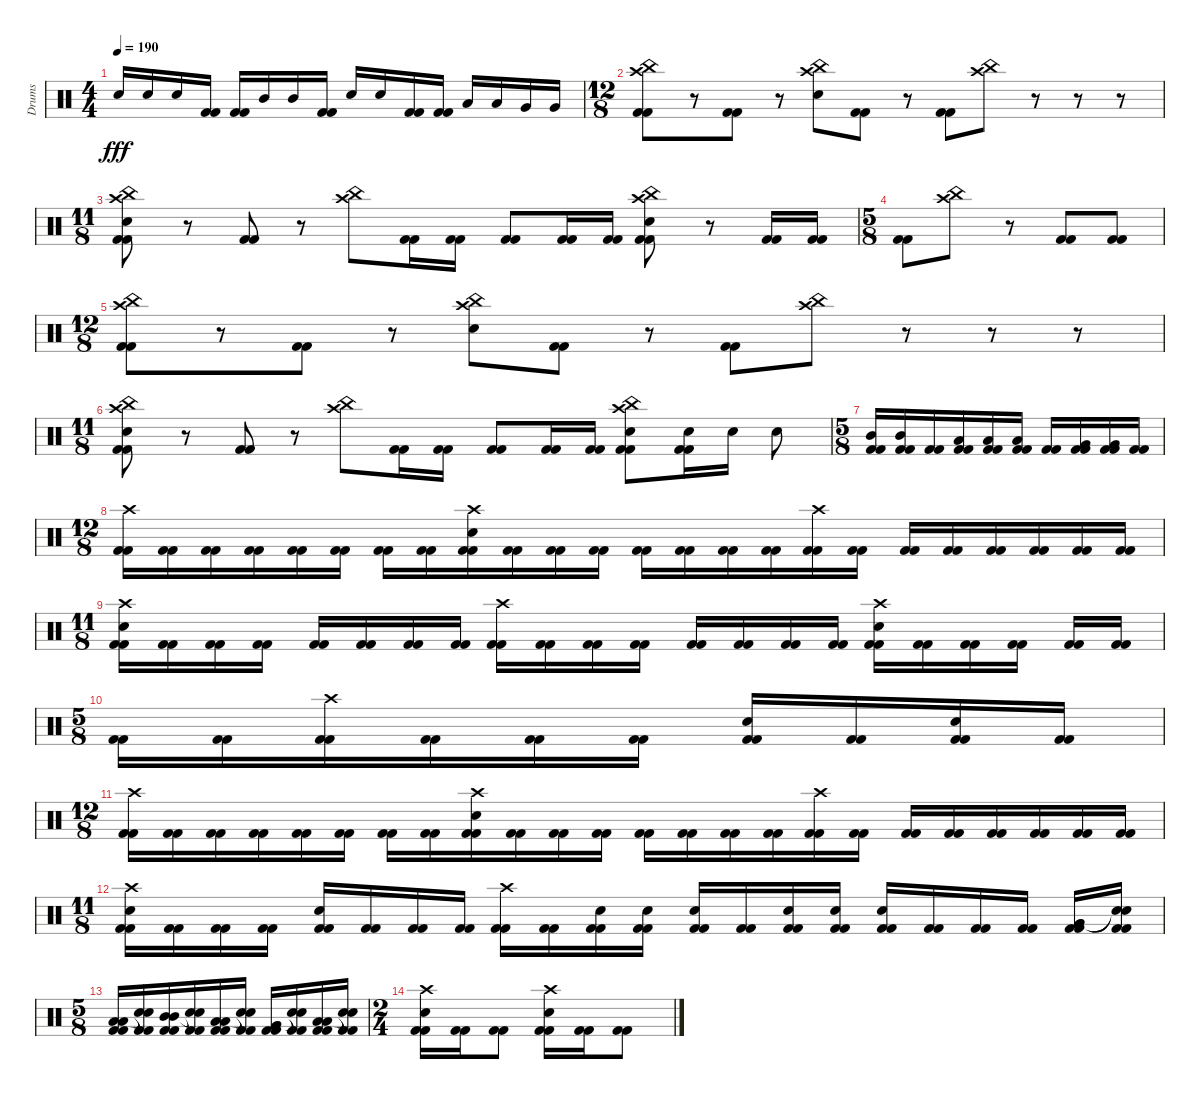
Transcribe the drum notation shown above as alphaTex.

\track ("Drums" "Drums") {instrument percussion}
\staff {score}
\articulation defaults
\ts (4 4)
\tempo 190
\clef neutral
\ks c "Electric Snare (hit)".16{dy fff} "Electric Snare (hit)".16 "Electric Snare (hit)".16
("Kick (hit) 2" "Kick (hit) 2").16 ("Kick (hit) 2" "Kick (hit) 2").16 "Mid Tom (hit)".16 "Mid Tom (hit)".16 ("Kick (hit) 2" "Kick (hit) 2").16 "Electric Snare (hit)".16 "Electric Snare (hit)".16 ("Kick (hit) 2" "Kick (hit) 2").16 ("Kick (hit) 2" "Kick (hit) 2").16 "Low Tom (hit)".16 "Low Tom (hit)".16 "Very Low Tom (hit)".16 "Very Low Tom (hit)".16 |
\ts (12 8)
("Crash high (hit)" "China (hit)" "Kick (hit) 2" "Kick (hit) 2").8 r.8 ("Kick (hit) 2" "Kick (hit) 2").8 r.8 ("Crash high (hit)" "China (hit)" "Electric Snare (hit)").8 ("Kick (hit) 2" "Kick (hit) 2").8 r.8 ("Kick (hit) 2" "Kick (hit) 2").8 ("Crash high (hit)" "China (hit)").8 r.8 r.8 r.8 |
\ts (11 8)
("Crash high (hit)" "China (hit)" "Electric Snare (hit)" "Kick (hit) 2" "Kick (hit) 2").8 r.8 ("Kick (hit) 2" "Kick (hit) 2").8 r.8 ("Crash high (hit)" "China (hit)").8 ("Kick (hit) 2" "Kick (hit) 2").16 ("Kick (hit) 2" "Kick (hit) 2").16 ("Kick (hit) 2" "Kick (hit) 2").8 ("Kick (hit) 2" "Kick (hit) 2").16 ("Kick (hit) 2" "Kick (hit) 2").16 ("Crash high (hit)" "China (hit)" "Electric Snare (hit)" "Kick (hit) 2" "Kick (hit) 2").8 r.8 ("Kick (hit) 2" "Kick (hit) 2").16 ("Kick (hit) 2" "Kick (hit) 2").16 |
\ts (5 8)
("Kick (hit) 2" "Kick (hit) 2").8 ("Crash high (hit)" "China (hit)").8 r.8 ("Kick (hit) 2" "Kick (hit) 2").8 ("Kick (hit) 2" "Kick (hit) 2").8 |
\ts (12 8)
("Crash high (hit)" "China (hit)" "Kick (hit) 2" "Kick (hit) 2").8 r.8 ("Kick (hit) 2" "Kick (hit) 2").8 r.8 ("Crash high (hit)" "China (hit)" "Electric Snare (hit)").8 ("Kick (hit) 2" "Kick (hit) 2").8 r.8 ("Kick (hit) 2" "Kick (hit) 2").8 ("Crash high (hit)" "China (hit)").8 r.8 r.8 r.8 |
\ts (11 8)
("Crash high (hit)" "China (hit)" "Electric Snare (hit)" "Kick (hit) 2" "Kick (hit) 2").8 r.8 ("Kick (hit) 2" "Kick (hit) 2").8 r.8 ("Crash high (hit)" "China (hit)").8 ("Kick (hit) 2" "Kick (hit) 2").16 ("Kick (hit) 2" "Kick (hit) 2").16 ("Kick (hit) 2" "Kick (hit) 2").8 ("Kick (hit) 2" "Kick (hit) 2").16 ("Kick (hit) 2" "Kick (hit) 2").16 ("Crash high (hit)" "China (hit)" "Electric Snare (hit)" "Kick (hit) 2" "Kick (hit) 2").8 ("Electric Snare (hit)" "Kick (hit) 2" "Kick (hit) 2").16 "Electric Snare (hit)".16 "Electric Snare (hit)".8 |
\ts (5 8)
("Mid Tom (hit)" "Kick (hit) 2" "Kick (hit) 2").16 ("Mid Tom (hit)" "Kick (hit) 2" "Kick (hit) 2").16 ("Kick (hit) 2" "Kick (hit) 2").16 ("Low Tom (hit)" "Kick (hit) 2" "Kick (hit) 2").16 ("Low Tom (hit)" "Kick (hit) 2" "Kick (hit) 2").16 ("Low Tom (hit)" "Kick (hit) 2" "Kick (hit) 2").16 ("Kick (hit) 2" "Kick (hit) 2").16 ("Very Low Tom (hit)" "Kick (hit) 2" "Kick (hit) 2").16 ("Very Low Tom (hit)" "Kick (hit) 2" "Kick (hit) 2").16 ("Kick (hit) 2" "Kick (hit) 2").16 |
\ts (12 8)
("Crash high (hit)" "Kick (hit) 2" "Kick (hit) 2").16 ("Kick (hit) 2" "Kick (hit) 2").16 ("Kick (hit) 2" "Kick (hit) 2").16 ("Kick (hit) 2" "Kick (hit) 2").16 ("Kick (hit) 2" "Kick (hit) 2").16 ("Kick (hit) 2" "Kick (hit) 2").16 ("Kick (hit) 2" "Kick (hit) 2").16 ("Kick (hit) 2" "Kick (hit) 2").16 ("Crash high (hit)" "Electric Snare (hit)" "Kick (hit) 2" "Kick (hit) 2").16 ("Kick (hit) 2" "Kick (hit) 2").16 ("Kick (hit) 2" "Kick (hit) 2").16 ("Kick (hit) 2" "Kick (hit) 2").16 ("Kick (hit) 2" "Kick (hit) 2").16 ("Kick (hit) 2" "Kick (hit) 2").16 ("Kick (hit) 2" "Kick (hit) 2").16 ("Kick (hit) 2" "Kick (hit) 2").16 ("Crash high (hit)" "Kick (hit) 2" "Kick (hit) 2").16 ("Kick (hit) 2" "Kick (hit) 2").16 ("Kick (hit) 2" "Kick (hit) 2").16 ("Kick (hit) 2" "Kick (hit) 2").16 ("Kick (hit) 2" "Kick (hit) 2").16 ("Kick (hit) 2" "Kick (hit) 2").16 ("Kick (hit) 2" "Kick (hit) 2").16 ("Kick (hit) 2" "Kick (hit) 2").16 |
\ts (11 8)
("Crash high (hit)" "Electric Snare (hit)" "Kick (hit) 2" "Kick (hit) 2").16 ("Kick (hit) 2" "Kick (hit) 2").16 ("Kick (hit) 2" "Kick (hit) 2").16 ("Kick (hit) 2" "Kick (hit) 2").16 ("Kick (hit) 2" "Kick (hit) 2").16 ("Kick (hit) 2" "Kick (hit) 2").16 ("Kick (hit) 2" "Kick (hit) 2").16 ("Kick (hit) 2" "Kick (hit) 2").16 ("Crash high (hit)" "Kick (hit) 2" "Kick (hit) 2").16 ("Kick (hit) 2" "Kick (hit) 2").16 ("Kick (hit) 2" "Kick (hit) 2").16 ("Kick (hit) 2" "Kick (hit) 2").16 ("Kick (hit) 2" "Kick (hit) 2").16 ("Kick (hit) 2" "Kick (hit) 2").16 ("Kick (hit) 2" "Kick (hit) 2").16 ("Kick (hit) 2" "Kick (hit) 2").16 ("Crash high (hit)" "Electric Snare (hit)" "Kick (hit) 2" "Kick (hit) 2").16 ("Kick (hit) 2" "Kick (hit) 2").16 ("Kick (hit) 2" "Kick (hit) 2").16 ("Kick (hit) 2" "Kick (hit) 2").16 ("Kick (hit) 2" "Kick (hit) 2").16 ("Kick (hit) 2" "Kick (hit) 2").16 |
\ts (5 8)
("Kick (hit) 2" "Kick (hit) 2").16 ("Kick (hit) 2" "Kick (hit) 2").16 ("Crash high (hit)" "Kick (hit) 2" "Kick (hit) 2").16 ("Kick (hit) 2" "Kick (hit) 2").16 ("Kick (hit) 2" "Kick (hit) 2").16 ("Kick (hit) 2" "Kick (hit) 2").16 ("Electric Snare (hit)" "Kick (hit) 2" "Kick (hit) 2").16 ("Kick (hit) 2" "Kick (hit) 2").16 ("Electric Snare (hit)" "Kick (hit) 2" "Kick (hit) 2").16 ("Kick (hit) 2" "Kick (hit) 2").16 |
\ts (12 8)
("Crash high (hit)" "Kick (hit) 2" "Kick (hit) 2").16 ("Kick (hit) 2" "Kick (hit) 2").16 ("Kick (hit) 2" "Kick (hit) 2").16 ("Kick (hit) 2" "Kick (hit) 2").16 ("Kick (hit) 2" "Kick (hit) 2").16 ("Kick (hit) 2" "Kick (hit) 2").16 ("Kick (hit) 2" "Kick (hit) 2").16 ("Kick (hit) 2" "Kick (hit) 2").16 ("Crash high (hit)" "Electric Snare (hit)" "Kick (hit) 2" "Kick (hit) 2").16 ("Kick (hit) 2" "Kick (hit) 2").16 ("Kick (hit) 2" "Kick (hit) 2").16 ("Kick (hit) 2" "Kick (hit) 2").16 ("Kick (hit) 2" "Kick (hit) 2").16 ("Kick (hit) 2" "Kick (hit) 2").16 ("Kick (hit) 2" "Kick (hit) 2").16 ("Kick (hit) 2" "Kick (hit) 2").16 ("Crash high (hit)" "Kick (hit) 2" "Kick (hit) 2").16 ("Kick (hit) 2" "Kick (hit) 2").16 ("Kick (hit) 2" "Kick (hit) 2").16 ("Kick (hit) 2" "Kick (hit) 2").16 ("Kick (hit) 2" "Kick (hit) 2").16 ("Kick (hit) 2" "Kick (hit) 2").16 ("Kick (hit) 2" "Kick (hit) 2").16 ("Kick (hit) 2" "Kick (hit) 2").16 |
\ts (11 8)
("Crash high (hit)" "Electric Snare (hit)" "Kick (hit) 2" "Kick (hit) 2").16 ("Kick (hit) 2" "Kick (hit) 2").16 ("Kick (hit) 2" "Kick (hit) 2").16 ("Kick (hit) 2" "Kick (hit) 2").16 ("Electric Snare (hit)" "Kick (hit) 2" "Kick (hit) 2").16 ("Kick (hit) 2" "Kick (hit) 2").16 ("Kick (hit) 2" "Kick (hit) 2").16 ("Kick (hit) 2" "Kick (hit) 2").16 ("Crash high (hit)" "Kick (hit) 2" "Kick (hit) 2").16 ("Kick (hit) 2" "Kick (hit) 2").16 ("Electric Snare (hit)" "Kick (hit) 2" "Kick (hit) 2").16 ("Electric Snare (hit)" "Kick (hit) 2" "Kick (hit) 2").16 ("Electric Snare (hit)" "Kick (hit) 2" "Kick (hit) 2").16 ("Kick (hit) 2" "Kick (hit) 2").16 ("Electric Snare (hit)" "Kick (hit) 2" "Kick (hit) 2").16 ("Electric Snare (hit)" "Kick (hit) 2" "Kick (hit) 2").16 ("Electric Snare (hit)" "Kick (hit) 2" "Kick (hit) 2").16 ("Kick (hit) 2" "Kick (hit) 2").16 ("Kick (hit) 2" "Kick (hit) 2").16 ("Kick (hit) 2" "Kick (hit) 2").16 ("Very Low Tom (hit)" "Very Low Tom (hit)" "Kick (hit) 2" "Kick (hit) 2").16 ("Snare (hit)"{t} "Snare (hit)"{t} "Kick (hit) 2" "Kick (hit) 2").16 |
\ts (5 8)
("Low Tom (hit)" "Low Tom (hit)" "Kick (hit) 2" "Kick (hit) 2").16 ("Snare (hit)"{t} "Snare (hit)"{t} "Kick (hit) 2" "Kick (hit) 2").16 ("Mid Tom (hit)" "Mid Tom (hit)" "Kick (hit) 2" "Kick (hit) 2").16 ("Snare (hit)"{t} "Snare (hit)"{t} "Kick (hit) 2" "Kick (hit) 2").16 ("Low Tom (hit)" "Low Tom (hit)" "Kick (hit) 2" "Kick (hit) 2").16 ("Snare (hit)"{t} "Snare (hit)"{t} "Kick (hit) 2" "Kick (hit) 2").16 ("Very Low Tom (hit)" "Very Low Tom (hit)" "Kick (hit) 2" "Kick (hit) 2").16 ("Snare (hit)"{t} "Snare (hit)"{t} "Kick (hit) 2" "Kick (hit) 2").16 ("Low Floor Tom (hit)" "Low Floor Tom (hit)" "Kick (hit) 2" "Kick (hit) 2").16 ("Snare (hit)"{t} "Snare (hit)"{t} "Kick (hit) 2" "Kick (hit) 2").16 |
\ts (2 4)
("Crash high (hit)" "Electric Snare (hit)" "Kick (hit) 2" "Kick (hit) 2").16 ("Kick (hit) 2" "Kick (hit) 2").16 ("Kick (hit) 2" "Kick (hit) 2").8 ("Crash high (hit)" "Electric Snare (hit)" "Kick (hit) 2" "Kick (hit) 2").16 ("Kick (hit) 2" "Kick (hit) 2").16 ("Kick (hit) 2" "Kick (hit) 2").8
